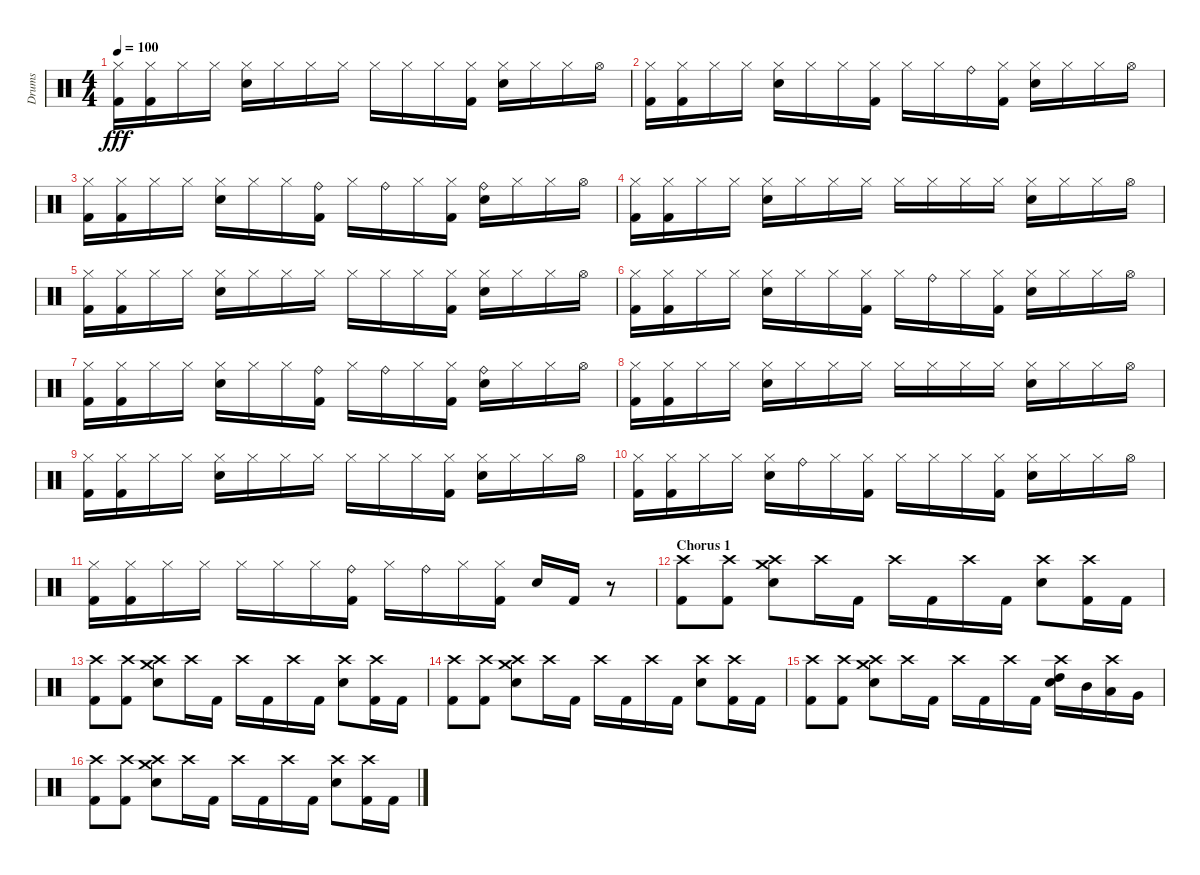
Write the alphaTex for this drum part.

\track ("Drums" "Drums") {instrument percussion}
\staff {score}
\articulation defaults
\ts (4 4)
\tempo 100
\clef neutral
\ks c
("Hi-Hat (closed)" "Kick (hit) 2").16{dy fff} ("Hi-Hat (closed)" "Kick (hit) 2").16 "Hi-Hat (closed)".16 "Hi-Hat (closed)".16 ("Hi-Hat (closed)" "Electric Snare (hit)").16 "Hi-Hat (closed)".16 "Hi-Hat (closed)".16 "Hi-Hat (closed)".16 "Hi-Hat (closed)".16 "Hi-Hat (closed)".16 "Hi-Hat (closed)".16 ("Hi-Hat (closed)" "Kick (hit) 2").16 ("Hi-Hat (closed)" "Electric Snare (hit)").16 "Hi-Hat (closed)".16 "Hi-Hat (closed)".16 "Hi-Hat (open)".16 |
("Hi-Hat (closed)" "Kick (hit) 2").16 ("Hi-Hat (closed)" "Kick (hit) 2").16 "Hi-Hat (closed)".16 "Hi-Hat (closed)".16 ("Hi-Hat (closed)" "Electric Snare (hit)").16 "Hi-Hat (closed)".16 "Hi-Hat (closed)".16 ("Hi-Hat (closed)" "Kick (hit) 2").16 "Hi-Hat (closed)".16 "Hi-Hat (closed)".16 "Ride (bell)".16 ("Hi-Hat (closed)" "Kick (hit) 2").16 ("Hi-Hat (closed)" "Electric Snare (hit)").16 "Hi-Hat (closed)".16 "Hi-Hat (closed)".16 "Hi-Hat (open)".16 |
("Hi-Hat (closed)" "Kick (hit) 2").16 ("Hi-Hat (closed)" "Kick (hit) 2").16 "Hi-Hat (closed)".16 "Hi-Hat (closed)".16 ("Hi-Hat (closed)" "Electric Snare (hit)").16 "Hi-Hat (closed)".16 "Hi-Hat (closed)".16 ("Ride (bell)" "Kick (hit) 2").16 "Hi-Hat (closed)".16 "Ride (bell)".16 "Hi-Hat (closed)".16 ("Hi-Hat (closed)" "Kick (hit) 2").16 ("Ride (bell)" "Electric Snare (hit)").16 "Hi-Hat (closed)".16 "Hi-Hat (closed)".16 "Hi-Hat (open)".16 |
("Hi-Hat (closed)" "Kick (hit) 2").16 ("Hi-Hat (closed)" "Kick (hit) 2").16 "Hi-Hat (closed)".16 "Hi-Hat (closed)".16 ("Hi-Hat (closed)" "Electric Snare (hit)").16 "Hi-Hat (closed)".16 "Hi-Hat (closed)".16 "Hi-Hat (closed)".16 "Hi-Hat (closed)".16 "Hi-Hat (closed)".16 "Hi-Hat (closed)".16 "Hi-Hat (closed)".16 ("Hi-Hat (closed)" "Electric Snare (hit)").16 "Hi-Hat (closed)".16 "Hi-Hat (closed)".16 "Hi-Hat (open)".16 |
("Hi-Hat (closed)" "Kick (hit) 2").16 ("Hi-Hat (closed)" "Kick (hit) 2").16 "Hi-Hat (closed)".16 "Hi-Hat (closed)".16 ("Hi-Hat (closed)" "Electric Snare (hit)").16 "Hi-Hat (closed)".16 "Hi-Hat (closed)".16 "Hi-Hat (closed)".16 "Hi-Hat (closed)".16 "Hi-Hat (closed)".16 "Hi-Hat (closed)".16 ("Hi-Hat (closed)" "Kick (hit) 2").16 ("Hi-Hat (closed)" "Electric Snare (hit)").16 "Hi-Hat (closed)".16 "Hi-Hat (closed)".16 "Hi-Hat (open)".16 |
("Hi-Hat (closed)" "Kick (hit) 2").16 ("Hi-Hat (closed)" "Kick (hit) 2").16 "Hi-Hat (closed)".16 "Hi-Hat (closed)".16 ("Hi-Hat (closed)" "Electric Snare (hit)").16 "Hi-Hat (closed)".16 "Hi-Hat (closed)".16 ("Hi-Hat (closed)" "Kick (hit) 2").16 "Hi-Hat (closed)".16 "Ride (bell)".16 "Hi-Hat (closed)".16 ("Hi-Hat (closed)" "Kick (hit) 2").16 ("Hi-Hat (closed)" "Electric Snare (hit)").16 "Hi-Hat (closed)".16 "Hi-Hat (closed)".16 "Hi-Hat (open)".16 |
("Hi-Hat (closed)" "Kick (hit) 2").16 ("Hi-Hat (closed)" "Kick (hit) 2").16 "Hi-Hat (closed)".16 "Hi-Hat (closed)".16 ("Hi-Hat (closed)" "Electric Snare (hit)").16 "Hi-Hat (closed)".16 "Hi-Hat (closed)".16 ("Ride (bell)" "Kick (hit) 2").16 "Hi-Hat (closed)".16 "Ride (bell)".16 "Hi-Hat (closed)".16 ("Hi-Hat (closed)" "Kick (hit) 2").16 ("Ride (bell)" "Electric Snare (hit)").16 "Hi-Hat (closed)".16 "Hi-Hat (closed)".16 "Hi-Hat (open)".16 |
("Hi-Hat (closed)" "Kick (hit) 2").16 ("Hi-Hat (closed)" "Kick (hit) 2").16 "Hi-Hat (closed)".16 "Hi-Hat (closed)".16 ("Hi-Hat (closed)" "Electric Snare (hit)").16 "Hi-Hat (closed)".16 "Hi-Hat (closed)".16 "Hi-Hat (closed)".16 "Hi-Hat (closed)".16 "Hi-Hat (closed)".16 "Hi-Hat (closed)".16 "Hi-Hat (closed)".16 ("Hi-Hat (closed)" "Electric Snare (hit)").16 "Hi-Hat (closed)".16 "Hi-Hat (closed)".16 "Hi-Hat (open)".16 |
("Hi-Hat (closed)" "Kick (hit) 2").16 ("Hi-Hat (closed)" "Kick (hit) 2").16 "Hi-Hat (closed)".16 "Hi-Hat (closed)".16 ("Hi-Hat (closed)" "Electric Snare (hit)").16 "Hi-Hat (closed)".16 "Hi-Hat (closed)".16 "Hi-Hat (closed)".16 "Hi-Hat (closed)".16 "Hi-Hat (closed)".16 "Hi-Hat (closed)".16 ("Hi-Hat (closed)" "Kick (hit) 2").16 ("Hi-Hat (closed)" "Electric Snare (hit)").16 "Hi-Hat (closed)".16 "Hi-Hat (closed)".16 "Hi-Hat (open)".16 |
("Hi-Hat (closed)" "Kick (hit) 2").16 ("Hi-Hat (closed)" "Kick (hit) 2").16 "Hi-Hat (closed)".16 "Hi-Hat (closed)".16 ("Hi-Hat (closed)" "Electric Snare (hit)").16 "Ride (bell)".16 "Hi-Hat (closed)".16 ("Hi-Hat (closed)" "Kick (hit) 2").16 "Hi-Hat (closed)".16 "Hi-Hat (closed)".16 "Hi-Hat (closed)".16 ("Hi-Hat (closed)" "Kick (hit) 2").16 ("Hi-Hat (closed)" "Electric Snare (hit)").16 "Hi-Hat (closed)".16 "Hi-Hat (closed)".16 "Hi-Hat (open)".16 |
("Hi-Hat (closed)" "Kick (hit) 2").16 ("Hi-Hat (closed)" "Kick (hit) 2").16 "Hi-Hat (closed)".16 "Hi-Hat (closed)".16 "Hi-Hat (closed)".16 "Hi-Hat (closed)".16 "Hi-Hat (closed)".16 ("Ride (bell)" "Kick (hit) 2").16 "Hi-Hat (closed)".16 "Ride (bell)".16 "Hi-Hat (closed)".16 ("Hi-Hat (closed)" "Kick (hit) 2").16 "Electric Snare (hit)".16 "Kick (hit) 2".16 r.8 |
\section ("" "Chorus 1")
("Crash high (hit)" "Kick (hit) 2").8 ("Crash high (hit)" "Kick (hit) 2").8 ("Crash high (hit)" "Crash medium (hit)" "Electric Snare (hit)").8 "Crash high (hit)".16 "Kick (hit) 2".16 "Crash high (hit)".16 "Kick (hit) 2".16 "Crash high (hit)".16 "Kick (hit) 2".16 ("Crash high (hit)" "Electric Snare (hit)").8 ("Crash high (hit)" "Kick (hit) 2").16 "Kick (hit) 2".16 |
("Crash high (hit)" "Kick (hit) 2").8 ("Crash high (hit)" "Kick (hit) 2").8 ("Crash high (hit)" "Crash medium (hit)" "Electric Snare (hit)").8 "Crash high (hit)".16 "Kick (hit) 2".16 "Crash high (hit)".16 "Kick (hit) 2".16 "Crash high (hit)".16 "Kick (hit) 2".16 ("Crash high (hit)" "Electric Snare (hit)").8 ("Crash high (hit)" "Kick (hit) 2").16 "Kick (hit) 2".16 |
("Crash high (hit)" "Kick (hit) 2").8 ("Crash high (hit)" "Kick (hit) 2").8 ("Crash high (hit)" "Crash medium (hit)" "Electric Snare (hit)").8 "Crash high (hit)".16 "Kick (hit) 2".16 "Crash high (hit)".16 "Kick (hit) 2".16 "Crash high (hit)".16 "Kick (hit) 2".16 ("Crash high (hit)" "Electric Snare (hit)").8 ("Crash high (hit)" "Kick (hit) 2").16 "Kick (hit) 2".16 |
("Crash high (hit)" "Kick (hit) 2").8 ("Crash high (hit)" "Kick (hit) 2").8 ("Crash high (hit)" "Crash medium (hit)" "Electric Snare (hit)").8 "Crash high (hit)".16 "Kick (hit) 2".16 "Crash high (hit)".16 "Kick (hit) 2".16 "Crash high (hit)".16 "Kick (hit) 2".16 ("Crash high (hit)" "High Tom (hit)" "Electric Snare (hit)").16 "Mid Tom (hit)".16 ("Crash high (hit)" "Low Tom (hit)").16 "Very Low Tom (hit)".16 |
("Crash high (hit)" "Kick (hit) 2").8 ("Crash high (hit)" "Kick (hit) 2").8 ("Crash high (hit)" "Crash medium (hit)" "Electric Snare (hit)").8 "Crash high (hit)".16 "Kick (hit) 2".16 "Crash high (hit)".16 "Kick (hit) 2".16 "Crash high (hit)".16 "Kick (hit) 2".16 ("Crash high (hit)" "Electric Snare (hit)").8 ("Crash high (hit)" "Kick (hit) 2").16 "Kick (hit) 2".16
